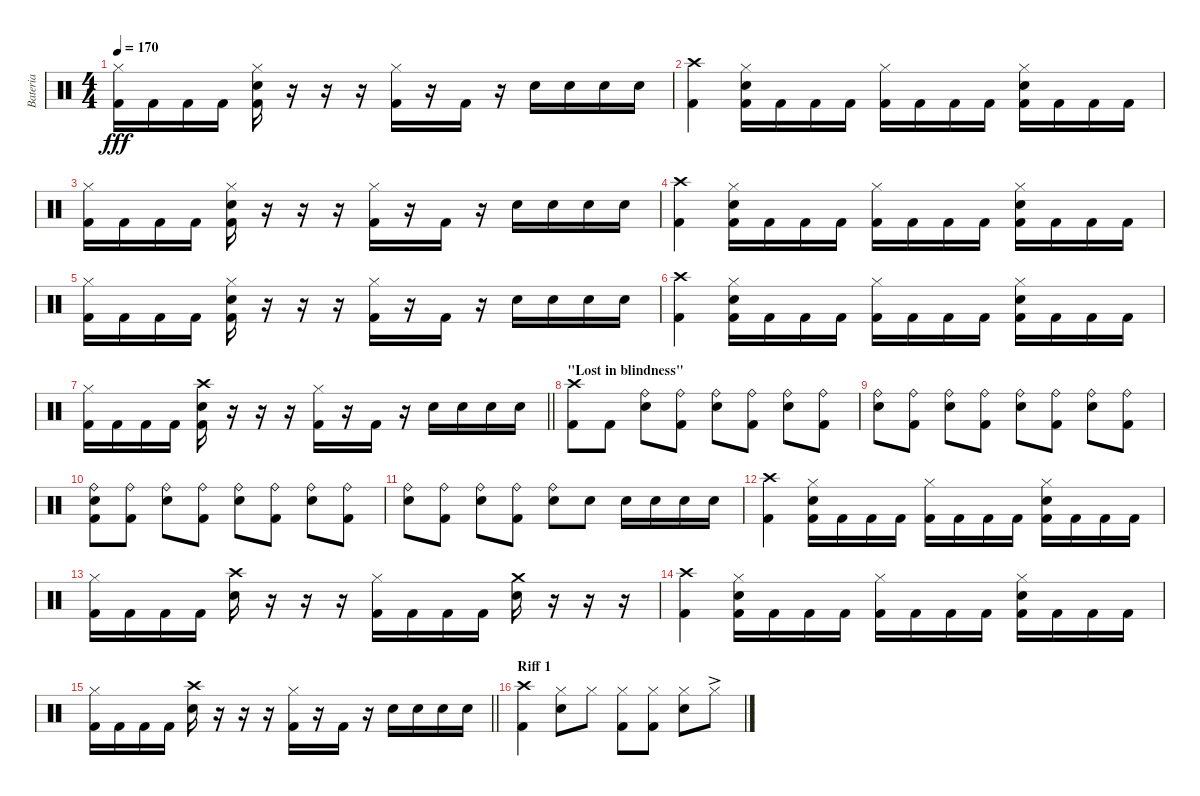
\track ("Bateria" "Bateria") {instrument percussion}
\staff {score}
\articulation defaults
\ts (4 4)
\tempo 170
\clef neutral
\ks c
("Hi-Hat (closed)" "Kick (hit) 2").16{dy fff} "Kick (hit) 2".16 "Kick (hit) 2".16 "Kick (hit) 2".16 ("Hi-Hat (closed)" "Electric Snare (hit)" "Kick (hit) 2").16 r.16 r.16 r.16 ("Hi-Hat (closed)" "Kick (hit) 2").16 r.16 "Kick (hit) 2".16 r.16 "Electric Snare (hit)".16 "Electric Snare (hit)".16 "Electric Snare (hit)".16 "Electric Snare (hit)".16 |
("Crash high (hit)" "Kick (hit) 2").4 ("Hi-Hat (closed)" "Electric Snare (hit)" "Kick (hit) 2").16 "Kick (hit) 2".16 "Kick (hit) 2".16 "Kick (hit) 2".16 ("Hi-Hat (closed)" "Kick (hit) 2").16 "Kick (hit) 2".16 "Kick (hit) 2".16 "Kick (hit) 2".16 ("Hi-Hat (closed)" "Electric Snare (hit)" "Kick (hit) 2").16 "Kick (hit) 2".16 "Kick (hit) 2".16 "Kick (hit) 2".16 |
("Hi-Hat (closed)" "Kick (hit) 2").16 "Kick (hit) 2".16 "Kick (hit) 2".16 "Kick (hit) 2".16 ("Hi-Hat (closed)" "Electric Snare (hit)" "Kick (hit) 2").16 r.16 r.16 r.16 ("Hi-Hat (closed)" "Kick (hit) 2").16 r.16 "Kick (hit) 2".16 r.16 "Electric Snare (hit)".16 "Electric Snare (hit)".16 "Electric Snare (hit)".16 "Electric Snare (hit)".16 |
("Crash high (hit)" "Kick (hit) 2").4 ("Hi-Hat (closed)" "Electric Snare (hit)" "Kick (hit) 2").16 "Kick (hit) 2".16 "Kick (hit) 2".16 "Kick (hit) 2".16 ("Hi-Hat (closed)" "Kick (hit) 2").16 "Kick (hit) 2".16 "Kick (hit) 2".16 "Kick (hit) 2".16 ("Hi-Hat (closed)" "Electric Snare (hit)" "Kick (hit) 2").16 "Kick (hit) 2".16 "Kick (hit) 2".16 "Kick (hit) 2".16 |
("Hi-Hat (closed)" "Kick (hit) 2").16 "Kick (hit) 2".16 "Kick (hit) 2".16 "Kick (hit) 2".16 ("Hi-Hat (closed)" "Electric Snare (hit)" "Kick (hit) 2").16 r.16 r.16 r.16 ("Hi-Hat (closed)" "Kick (hit) 2").16 r.16 "Kick (hit) 2".16 r.16 "Electric Snare (hit)".16 "Electric Snare (hit)".16 "Electric Snare (hit)".16 "Electric Snare (hit)".16 |
("Crash high (hit)" "Kick (hit) 2").4 ("Hi-Hat (closed)" "Electric Snare (hit)" "Kick (hit) 2").16 "Kick (hit) 2".16 "Kick (hit) 2".16 "Kick (hit) 2".16 ("Hi-Hat (closed)" "Kick (hit) 2").16 "Kick (hit) 2".16 "Kick (hit) 2".16 "Kick (hit) 2".16 ("Hi-Hat (closed)" "Electric Snare (hit)" "Kick (hit) 2").16 "Kick (hit) 2".16 "Kick (hit) 2".16 "Kick (hit) 2".16 |
\barLineRight lightlight
("Hi-Hat (closed)" "Kick (hit) 2").16 "Kick (hit) 2".16 "Kick (hit) 2".16 "Kick (hit) 2".16 ("Crash high (hit)" "Electric Snare (hit)" "Kick (hit) 2").16 r.16 r.16 r.16 ("Hi-Hat (closed)" "Kick (hit) 2").16 r.16 "Kick (hit) 2".16 r.16 "Electric Snare (hit)".16 "Electric Snare (hit)".16 "Electric Snare (hit)".16 "Electric Snare (hit)".16 |
\section ("" "\"Lost in blindness\"")
("Crash high (hit)" "Kick (hit) 2").8 "Kick (hit) 2".8 ("Ride (bell)" "Electric Snare (hit)").8 ("Ride (bell)" "Kick (hit) 2").8 ("Ride (bell)" "Electric Snare (hit)").8 ("Ride (bell)" "Kick (hit) 2").8 ("Ride (bell)" "Electric Snare (hit)").8 ("Ride (bell)" "Kick (hit) 2").8 |
("Ride (bell)" "Electric Snare (hit)").8 ("Ride (bell)" "Kick (hit) 2").8 ("Ride (bell)" "Electric Snare (hit)").8 ("Ride (bell)" "Kick (hit) 2").8 ("Ride (bell)" "Electric Snare (hit)").8 ("Ride (bell)" "Kick (hit) 2").8 ("Ride (bell)" "Electric Snare (hit)").8 ("Ride (bell)" "Kick (hit) 2").8 |
("Ride (bell)" "Electric Snare (hit)" "Kick (hit) 2").8 ("Ride (bell)" "Kick (hit) 2").8 ("Ride (bell)" "Electric Snare (hit)").8 ("Ride (bell)" "Kick (hit) 2").8 ("Ride (bell)" "Electric Snare (hit)").8 ("Ride (bell)" "Kick (hit) 2").8 ("Ride (bell)" "Electric Snare (hit)").8 ("Ride (bell)" "Kick (hit) 2").8 |
("Ride (bell)" "Electric Snare (hit)").8 ("Ride (bell)" "Kick (hit) 2").8 ("Ride (bell)" "Electric Snare (hit)").8 ("Ride (bell)" "Kick (hit) 2").8 ("Ride (bell)" "Electric Snare (hit)").8 "Electric Snare (hit)".8 "Electric Snare (hit)".16 "Electric Snare (hit)".16 "Electric Snare (hit)".16 "Electric Snare (hit)".16 |
("Crash high (hit)" "Kick (hit) 2").4 ("Hi-Hat (closed)" "Electric Snare (hit)" "Kick (hit) 2").16 "Kick (hit) 2".16 "Kick (hit) 2".16 "Kick (hit) 2".16 ("Hi-Hat (closed)" "Kick (hit) 2").16 "Kick (hit) 2".16 "Kick (hit) 2".16 "Kick (hit) 2".16 ("Hi-Hat (closed)" "Electric Snare (hit)" "Kick (hit) 2").16 "Kick (hit) 2".16 "Kick (hit) 2".16 "Kick (hit) 2".16 |
("Hi-Hat (closed)" "Kick (hit) 2").16 "Kick (hit) 2".16 "Kick (hit) 2".16 "Kick (hit) 2".16 ("Crash high (hit)" "Electric Snare (hit)").16 r.16 r.16 r.16 ("Hi-Hat (closed)" "Kick (hit) 2").16 "Kick (hit) 2".16 "Kick (hit) 2".16 "Kick (hit) 2".16 ("Crash medium (hit)" "Electric Snare (hit)").16 r.16 r.16 r.16 |
("Crash high (hit)" "Kick (hit) 2").4 ("Hi-Hat (closed)" "Electric Snare (hit)" "Kick (hit) 2").16 "Kick (hit) 2".16 "Kick (hit) 2".16 "Kick (hit) 2".16 ("Hi-Hat (closed)" "Kick (hit) 2").16 "Kick (hit) 2".16 "Kick (hit) 2".16 "Kick (hit) 2".16 ("Hi-Hat (closed)" "Electric Snare (hit)" "Kick (hit) 2").16 "Kick (hit) 2".16 "Kick (hit) 2".16 "Kick (hit) 2".16 |
\barLineRight lightlight
("Hi-Hat (closed)" "Kick (hit) 2").16 "Kick (hit) 2".16 "Kick (hit) 2".16 "Kick (hit) 2".16 ("Crash high (hit)" "Electric Snare (hit)").16 r.16 r.16 r.16 ("Hi-Hat (closed)" "Kick (hit) 2").16 r.16 "Kick (hit) 2".16 r.16 "Electric Snare (hit)".16 "Electric Snare (hit)".16 "Electric Snare (hit)".16 "Electric Snare (hit)".16 |
\section ("" "Riff 1")
("Crash high (hit)" "Kick (hit) 2").4 ("Hi-Hat (closed)" "Electric Snare (hit)").8 "Hi-Hat (closed)".8 ("Hi-Hat (closed)" "Kick (hit) 2").8 ("Hi-Hat (closed)" "Kick (hit) 2").8 ("Hi-Hat (closed)" "Electric Snare (hit)").8 "Hi-Hat (closed)"{ac}.8
